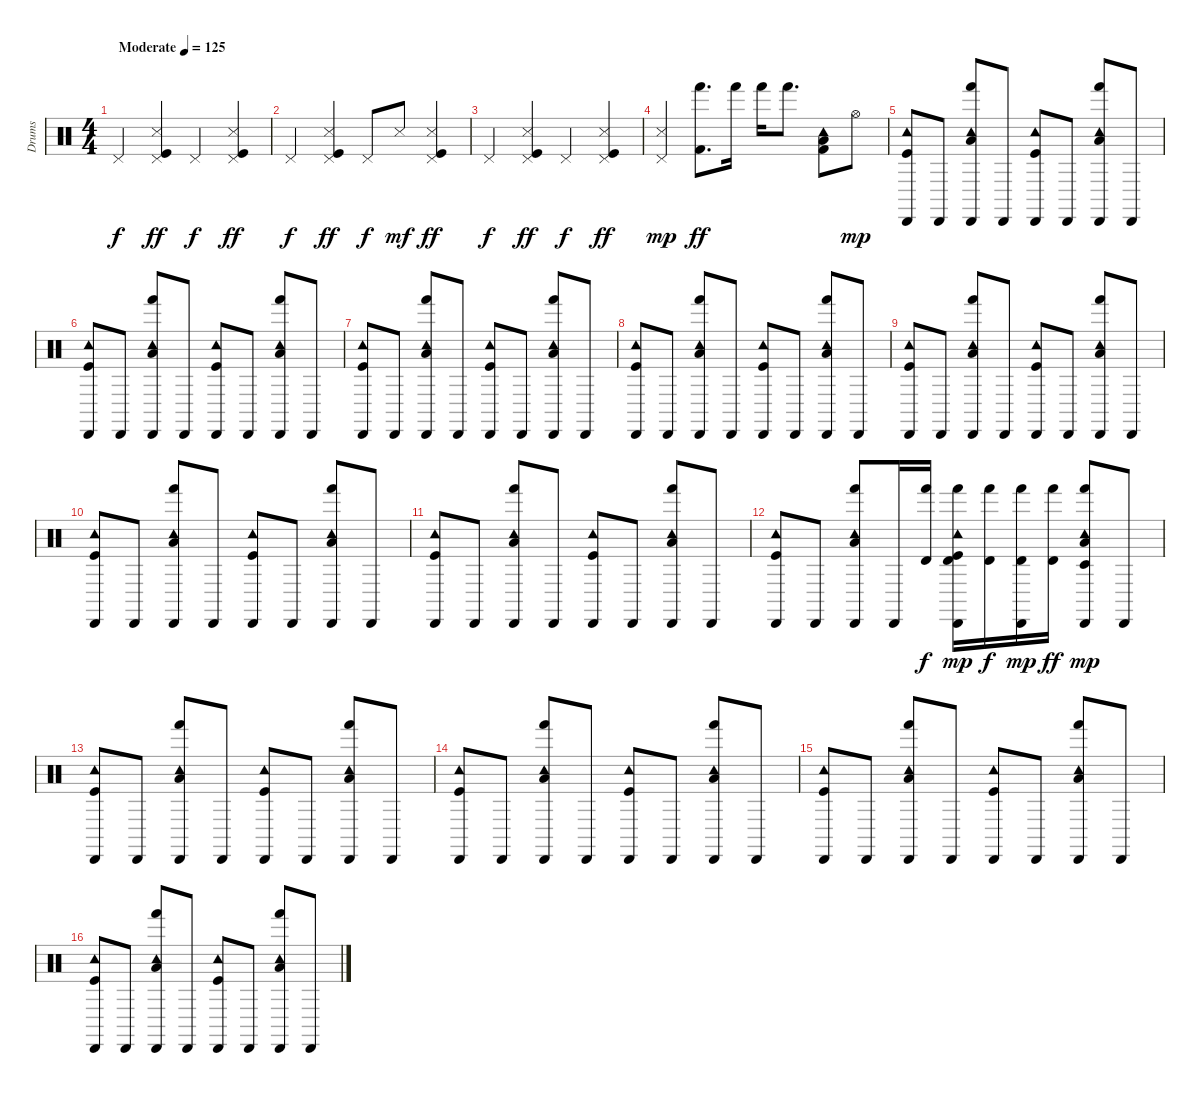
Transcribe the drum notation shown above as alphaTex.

\track ("Drums" "Drums") {instrument percussion}
\staff {score}
\articulation defaults
\ts (4 4)
\tempo (125 "Moderate")
\clef neutral
\ks c "Pedal Hi-Hat (hit)".4{dy f}
("Snare (side stick) 3" "Kick (hit)" "Pedal Hi-Hat (hit)").4{dy ff} "Pedal Hi-Hat (hit)".4{dy f} ("Snare (side stick) 3" "Kick (hit)" "Pedal Hi-Hat (hit)").4{dy ff} |
"Pedal Hi-Hat (hit)".4{dy f} ("Snare (side stick) 3" "Kick (hit)" "Pedal Hi-Hat (hit)").4{dy ff} "Pedal Hi-Hat (hit)".8{dy f} "Snare (side stick) 3".8{dy mf} ("Snare (side stick) 3" "Kick (hit)" "Pedal Hi-Hat (hit)").4{dy ff} |
"Pedal Hi-Hat (hit)".4{dy f} ("Snare (side stick) 3" "Kick (hit)" "Pedal Hi-Hat (hit)").4{dy ff} "Pedal Hi-Hat (hit)".4{dy f} ("Snare (side stick) 3" "Kick (hit)" "Pedal Hi-Hat (hit)").4{dy ff} |
("Snare (side stick) 3" "Pedal Hi-Hat (hit)").4{dy mp} ("Kick (hit) 2" "Hand (hit)").8{d dy ff} "Hand (hit)".16 "Hand (hit)".16 "Hand (hit)".8{d} ("Low Tom (hit)" "Kick (hit) 2" "Tambourine (hit)").8 "Hi-Hat (open)".8{dy mp} |
("Kick (hit)" "Tambourine (hit)" "Cabasa (hit)").8 "Cabasa (hit)".8 ("Low Tom (hit)" "Hand (hit)" "Tambourine (hit)" "Cabasa (hit)").8 "Cabasa (hit)".8 ("Kick (hit)" "Tambourine (hit)" "Cabasa (hit)").8 "Cabasa (hit)".8 ("Low Tom (hit)" "Hand (hit)" "Tambourine (hit)" "Cabasa (hit)").8 "Cabasa (hit)".8 |
("Kick (hit)" "Tambourine (hit)" "Cabasa (hit)").8 "Cabasa (hit)".8 ("Low Tom (hit)" "Hand (hit)" "Tambourine (hit)" "Cabasa (hit)").8 "Cabasa (hit)".8 ("Kick (hit)" "Tambourine (hit)" "Cabasa (hit)").8 "Cabasa (hit)".8 ("Low Tom (hit)" "Hand (hit)" "Tambourine (hit)" "Cabasa (hit)").8 "Cabasa (hit)".8 |
("Kick (hit)" "Tambourine (hit)" "Cabasa (hit)").8 "Cabasa (hit)".8 ("Low Tom (hit)" "Hand (hit)" "Tambourine (hit)" "Cabasa (hit)").8 "Cabasa (hit)".8 ("Kick (hit)" "Tambourine (hit)" "Cabasa (hit)").8 "Cabasa (hit)".8 ("Low Tom (hit)" "Hand (hit)" "Tambourine (hit)" "Cabasa (hit)").8 "Cabasa (hit)".8 |
("Kick (hit)" "Tambourine (hit)" "Cabasa (hit)").8 "Cabasa (hit)".8 ("Low Tom (hit)" "Hand (hit)" "Tambourine (hit)" "Cabasa (hit)").8 "Cabasa (hit)".8 ("Kick (hit)" "Tambourine (hit)" "Cabasa (hit)").8 "Cabasa (hit)".8 ("Low Tom (hit)" "Hand (hit)" "Tambourine (hit)" "Cabasa (hit)").8 "Cabasa (hit)".8 |
("Kick (hit)" "Tambourine (hit)" "Cabasa (hit)").8 "Cabasa (hit)".8 ("Low Tom (hit)" "Hand (hit)" "Tambourine (hit)" "Cabasa (hit)").8 "Cabasa (hit)".8 ("Kick (hit)" "Tambourine (hit)" "Cabasa (hit)").8 "Cabasa (hit)".8 ("Low Tom (hit)" "Hand (hit)" "Tambourine (hit)" "Cabasa (hit)").8 "Cabasa (hit)".8 |
("Kick (hit)" "Tambourine (hit)" "Cabasa (hit)").8 "Cabasa (hit)".8 ("Low Tom (hit)" "Hand (hit)" "Tambourine (hit)" "Cabasa (hit)").8 "Cabasa (hit)".8 ("Kick (hit)" "Tambourine (hit)" "Cabasa (hit)").8 "Cabasa (hit)".8 ("Low Tom (hit)" "Hand (hit)" "Tambourine (hit)" "Cabasa (hit)").8 "Cabasa (hit)".8 |
("Kick (hit)" "Tambourine (hit)" "Cabasa (hit)").8 "Cabasa (hit)".8 ("Low Tom (hit)" "Hand (hit)" "Tambourine (hit)" "Cabasa (hit)").8 "Cabasa (hit)".8 ("Kick (hit)" "Tambourine (hit)" "Cabasa (hit)").8 "Cabasa (hit)".8 ("Low Tom (hit)" "Hand (hit)" "Tambourine (hit)" "Cabasa (hit)").8 "Cabasa (hit)".8 |
("Kick (hit)" "Tambourine (hit)" "Cabasa (hit)").8 "Cabasa (hit)".8 ("Hand (hit)" "Low Tom (hit)" "Tambourine (hit)" "Cabasa (hit)").8 "Cabasa (hit)".16 ("Timbale high (hit)" "Hand (hit)").16{dy f} ("Timbale high (hit)" "Hand (hit)" "Kick (hit)" "Tambourine (hit)" "Cabasa (hit)").16{dy mp} ("Timbale high (hit)" "Hand (hit)").16{dy f} ("Timbale high (hit)" "Hand (hit)" "Cabasa (hit)").16{dy mp} ("Timbale high (hit)" "Hand (hit)").16{dy ff} ("Timbale low (hit)" "Low Tom (hit)" "Hand (hit)" "Tambourine (hit)" "Cabasa (hit)").8{dy mp} "Cabasa (hit)".8 |
("Kick (hit)" "Tambourine (hit)" "Cabasa (hit)").8 "Cabasa (hit)".8 ("Low Tom (hit)" "Hand (hit)" "Tambourine (hit)" "Cabasa (hit)").8 "Cabasa (hit)".8 ("Kick (hit)" "Tambourine (hit)" "Cabasa (hit)").8 "Cabasa (hit)".8 ("Low Tom (hit)" "Hand (hit)" "Tambourine (hit)" "Cabasa (hit)").8 "Cabasa (hit)".8 |
("Kick (hit)" "Tambourine (hit)" "Cabasa (hit)").8 "Cabasa (hit)".8 ("Low Tom (hit)" "Hand (hit)" "Tambourine (hit)" "Cabasa (hit)").8 "Cabasa (hit)".8 ("Kick (hit)" "Tambourine (hit)" "Cabasa (hit)").8 "Cabasa (hit)".8 ("Low Tom (hit)" "Hand (hit)" "Tambourine (hit)" "Cabasa (hit)").8 "Cabasa (hit)".8 |
("Kick (hit)" "Tambourine (hit)" "Cabasa (hit)").8 "Cabasa (hit)".8 ("Low Tom (hit)" "Hand (hit)" "Tambourine (hit)" "Cabasa (hit)").8 "Cabasa (hit)".8 ("Kick (hit)" "Tambourine (hit)" "Cabasa (hit)").8 "Cabasa (hit)".8 ("Low Tom (hit)" "Hand (hit)" "Tambourine (hit)" "Cabasa (hit)").8 "Cabasa (hit)".8 |
("Kick (hit)" "Tambourine (hit)" "Cabasa (hit)").8 "Cabasa (hit)".8 ("Low Tom (hit)" "Hand (hit)" "Tambourine (hit)" "Cabasa (hit)").8 "Cabasa (hit)".8 ("Kick (hit)" "Tambourine (hit)" "Cabasa (hit)").8 "Cabasa (hit)".8 ("Low Tom (hit)" "Hand (hit)" "Tambourine (hit)" "Cabasa (hit)").8 "Cabasa (hit)".8
